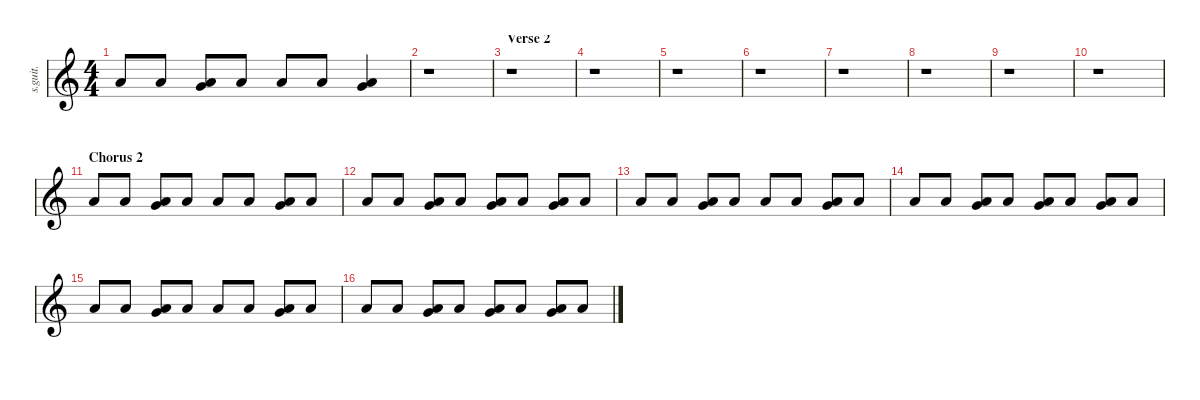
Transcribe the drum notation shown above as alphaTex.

\defaultSystemsLayout 4
\hideDynamics
\bracketExtendMode nobrackets
\track ("Chris Fehn" "s.guit.") {instrument percussion}
\staff {score}
\articulation defaults
\ts (4 4)
\tempo (210 hide)
\clef g2
\ks c "Low Floor Tom (hit)".8{lyrics (0 "") lyrics (1 "") lyrics (2 "") lyrics (3 "") lyrics (4 "") dy f} "Low Floor Tom (hit)".8{lyrics (0 "") lyrics (1 "") lyrics (2 "") lyrics (3 "") lyrics (4 "")}
("Very Low Tom (hit)" "Low Floor Tom (hit)").8{lyrics (0 "") lyrics (1 "") lyrics (2 "") lyrics (3 "") lyrics (4 "")} "Low Floor Tom (hit)".8{lyrics (0 "") lyrics (1 "") lyrics (2 "") lyrics (3 "") lyrics (4 "")} "Low Floor Tom (hit)".8{lyrics (0 "") lyrics (1 "") lyrics (2 "") lyrics (3 "") lyrics (4 "")} "Low Floor Tom (hit)".8{lyrics (0 "") lyrics (1 "") lyrics (2 "") lyrics (3 "") lyrics (4 "")} ("Very Low Tom (hit)" "Low Floor Tom (hit)").4{lyrics (0 "") lyrics (1 "") lyrics (2 "") lyrics (3 "") lyrics (4 "")} |
r.1 |
\section ("" "Verse 2")
r.1 |
r.1 |
r.1 |
r.1 |
r.1 |
r.1 |
r.1 |
r.1 |
\section ("" "Chorus 2")
"Low Floor Tom (hit)".8{lyrics (0 "") lyrics (1 "") lyrics (2 "") lyrics (3 "") lyrics (4 "")} "Low Floor Tom (hit)".8{lyrics (0 "") lyrics (1 "") lyrics (2 "") lyrics (3 "") lyrics (4 "")} ("Very Low Tom (hit)" "Low Floor Tom (hit)").8{lyrics (0 "") lyrics (1 "") lyrics (2 "") lyrics (3 "") lyrics (4 "")} "Low Floor Tom (hit)".8{lyrics (0 "") lyrics (1 "") lyrics (2 "") lyrics (3 "") lyrics (4 "")} "Low Floor Tom (hit)".8{lyrics (0 "") lyrics (1 "") lyrics (2 "") lyrics (3 "") lyrics (4 "")} "Low Floor Tom (hit)".8{lyrics (0 "") lyrics (1 "") lyrics (2 "") lyrics (3 "") lyrics (4 "")} ("Very Low Tom (hit)" "Low Floor Tom (hit)").8{lyrics (0 "") lyrics (1 "") lyrics (2 "") lyrics (3 "") lyrics (4 "")} "Low Floor Tom (hit)".8{lyrics (0 "") lyrics (1 "") lyrics (2 "") lyrics (3 "") lyrics (4 "")} |
"Low Floor Tom (hit)".8{lyrics (0 "") lyrics (1 "") lyrics (2 "") lyrics (3 "") lyrics (4 "")} "Low Floor Tom (hit)".8{lyrics (0 "") lyrics (1 "") lyrics (2 "") lyrics (3 "") lyrics (4 "")} ("Very Low Tom (hit)" "Low Floor Tom (hit)").8{lyrics (0 "") lyrics (1 "") lyrics (2 "") lyrics (3 "") lyrics (4 "")} "Low Floor Tom (hit)".8{lyrics (0 "") lyrics (1 "") lyrics (2 "") lyrics (3 "") lyrics (4 "")} ("Very Low Tom (hit)" "Low Floor Tom (hit)").8{lyrics (0 "") lyrics (1 "") lyrics (2 "") lyrics (3 "") lyrics (4 "")} "Low Floor Tom (hit)".8{lyrics (0 "") lyrics (1 "") lyrics (2 "") lyrics (3 "") lyrics (4 "")} ("Very Low Tom (hit)" "Low Floor Tom (hit)").8{lyrics (0 "") lyrics (1 "") lyrics (2 "") lyrics (3 "") lyrics (4 "")} "Low Floor Tom (hit)".8{lyrics (0 "") lyrics (1 "") lyrics (2 "") lyrics (3 "") lyrics (4 "")} |
"Low Floor Tom (hit)".8{lyrics (0 "") lyrics (1 "") lyrics (2 "") lyrics (3 "") lyrics (4 "")} "Low Floor Tom (hit)".8{lyrics (0 "") lyrics (1 "") lyrics (2 "") lyrics (3 "") lyrics (4 "")} ("Very Low Tom (hit)" "Low Floor Tom (hit)").8{lyrics (0 "") lyrics (1 "") lyrics (2 "") lyrics (3 "") lyrics (4 "")} "Low Floor Tom (hit)".8{lyrics (0 "") lyrics (1 "") lyrics (2 "") lyrics (3 "") lyrics (4 "")} "Low Floor Tom (hit)".8{lyrics (0 "") lyrics (1 "") lyrics (2 "") lyrics (3 "") lyrics (4 "")} "Low Floor Tom (hit)".8{lyrics (0 "") lyrics (1 "") lyrics (2 "") lyrics (3 "") lyrics (4 "")} ("Very Low Tom (hit)" "Low Floor Tom (hit)").8{lyrics (0 "") lyrics (1 "") lyrics (2 "") lyrics (3 "") lyrics (4 "")} "Low Floor Tom (hit)".8{lyrics (0 "") lyrics (1 "") lyrics (2 "") lyrics (3 "") lyrics (4 "")} |
"Low Floor Tom (hit)".8{lyrics (0 "") lyrics (1 "") lyrics (2 "") lyrics (3 "") lyrics (4 "")} "Low Floor Tom (hit)".8{lyrics (0 "") lyrics (1 "") lyrics (2 "") lyrics (3 "") lyrics (4 "")} ("Very Low Tom (hit)" "Low Floor Tom (hit)").8{lyrics (0 "") lyrics (1 "") lyrics (2 "") lyrics (3 "") lyrics (4 "")} "Low Floor Tom (hit)".8{lyrics (0 "") lyrics (1 "") lyrics (2 "") lyrics (3 "") lyrics (4 "")} ("Very Low Tom (hit)" "Low Floor Tom (hit)").8{lyrics (0 "") lyrics (1 "") lyrics (2 "") lyrics (3 "") lyrics (4 "")} "Low Floor Tom (hit)".8{lyrics (0 "") lyrics (1 "") lyrics (2 "") lyrics (3 "") lyrics (4 "")} ("Very Low Tom (hit)" "Low Floor Tom (hit)").8{lyrics (0 "") lyrics (1 "") lyrics (2 "") lyrics (3 "") lyrics (4 "")} "Low Floor Tom (hit)".8{lyrics (0 "") lyrics (1 "") lyrics (2 "") lyrics (3 "") lyrics (4 "")} |
"Low Floor Tom (hit)".8{lyrics (0 "") lyrics (1 "") lyrics (2 "") lyrics (3 "") lyrics (4 "")} "Low Floor Tom (hit)".8{lyrics (0 "") lyrics (1 "") lyrics (2 "") lyrics (3 "") lyrics (4 "")} ("Very Low Tom (hit)" "Low Floor Tom (hit)").8{lyrics (0 "") lyrics (1 "") lyrics (2 "") lyrics (3 "") lyrics (4 "")} "Low Floor Tom (hit)".8{lyrics (0 "") lyrics (1 "") lyrics (2 "") lyrics (3 "") lyrics (4 "")} "Low Floor Tom (hit)".8{lyrics (0 "") lyrics (1 "") lyrics (2 "") lyrics (3 "") lyrics (4 "")} "Low Floor Tom (hit)".8{lyrics (0 "") lyrics (1 "") lyrics (2 "") lyrics (3 "") lyrics (4 "")} ("Very Low Tom (hit)" "Low Floor Tom (hit)").8{lyrics (0 "") lyrics (1 "") lyrics (2 "") lyrics (3 "") lyrics (4 "")} "Low Floor Tom (hit)".8{lyrics (0 "") lyrics (1 "") lyrics (2 "") lyrics (3 "") lyrics (4 "")} |
"Low Floor Tom (hit)".8{lyrics (0 "") lyrics (1 "") lyrics (2 "") lyrics (3 "") lyrics (4 "")} "Low Floor Tom (hit)".8{lyrics (0 "") lyrics (1 "") lyrics (2 "") lyrics (3 "") lyrics (4 "")} ("Very Low Tom (hit)" "Low Floor Tom (hit)").8{lyrics (0 "") lyrics (1 "") lyrics (2 "") lyrics (3 "") lyrics (4 "")} "Low Floor Tom (hit)".8{lyrics (0 "") lyrics (1 "") lyrics (2 "") lyrics (3 "") lyrics (4 "")} ("Very Low Tom (hit)" "Low Floor Tom (hit)").8{lyrics (0 "") lyrics (1 "") lyrics (2 "") lyrics (3 "") lyrics (4 "")} "Low Floor Tom (hit)".8{lyrics (0 "") lyrics (1 "") lyrics (2 "") lyrics (3 "") lyrics (4 "")} ("Very Low Tom (hit)" "Low Floor Tom (hit)").8{lyrics (0 "") lyrics (1 "") lyrics (2 "") lyrics (3 "") lyrics (4 "")} "Low Floor Tom (hit)".8{lyrics (0 "") lyrics (1 "") lyrics (2 "") lyrics (3 "") lyrics (4 "")}
